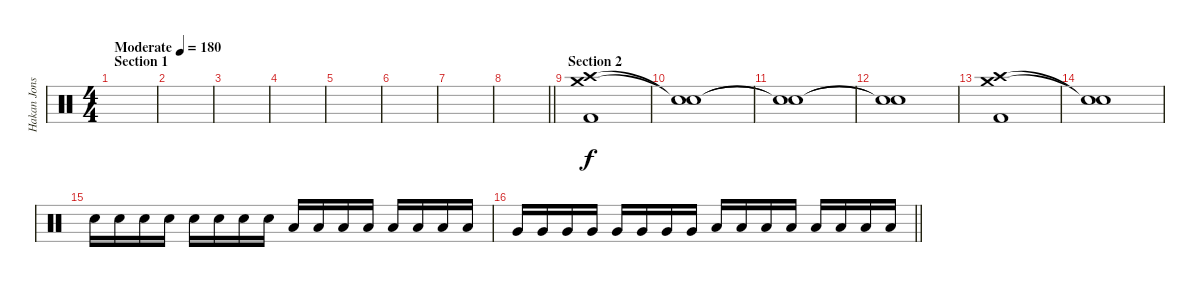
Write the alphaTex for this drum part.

\track ("Hakan Jonsson" "Hakan Jons") {instrument percussion}
\staff {score}
\articulation defaults
\ts (4 4)
\section ("" "Section 1")
\tempo (180 "Moderate")
\clef neutral
\ks c
|
|
|
|
|
|
|
\barLineRight lightlight
|
\section ("" "Section 2")
("Crash high (hit)" "Crash medium (hit)" "Kick (hit) 2").1 |
("Snare (hit)"{t} "Snare (hit)"{t}).1 |
("Snare (hit)"{t} "Snare (hit)"{t}).1 |
("Snare (hit)"{t} "Snare (hit)"{t}).1 |
("Crash high (hit)" "Crash medium (hit)" "Kick (hit) 2").1 |
("Snare (hit)"{t} "Snare (hit)"{t}).1 |
"Electric Snare (hit)".16 "Electric Snare (hit)".16 "Electric Snare (hit)".16 "Electric Snare (hit)".16 "Electric Snare (hit)".16 "Electric Snare (hit)".16 "Electric Snare (hit)".16 "Electric Snare (hit)".16 "Low Tom (hit)".16 "Low Tom (hit)".16 "Low Tom (hit)".16 "Low Tom (hit)".16 "Low Tom (hit)".16 "Low Tom (hit)".16 "Low Tom (hit)".16 "Low Tom (hit)".16 |
\barLineRight lightlight "Very Low Tom (hit)".16 "Very Low Tom (hit)".16 "Very Low Tom (hit)".16 "Very Low Tom (hit)".16 "Very Low Tom (hit)".16 "Very Low Tom (hit)".16 "Very Low Tom (hit)".16 "Very Low Tom (hit)".16 "Low Floor Tom (hit)".16 "Low Floor Tom (hit)".16 "Low Floor Tom (hit)".16 "Low Floor Tom (hit)".16 "Low Floor Tom (hit)".16 "Low Floor Tom (hit)".16 "Low Floor Tom (hit)".16 "Low Floor Tom (hit)".16
